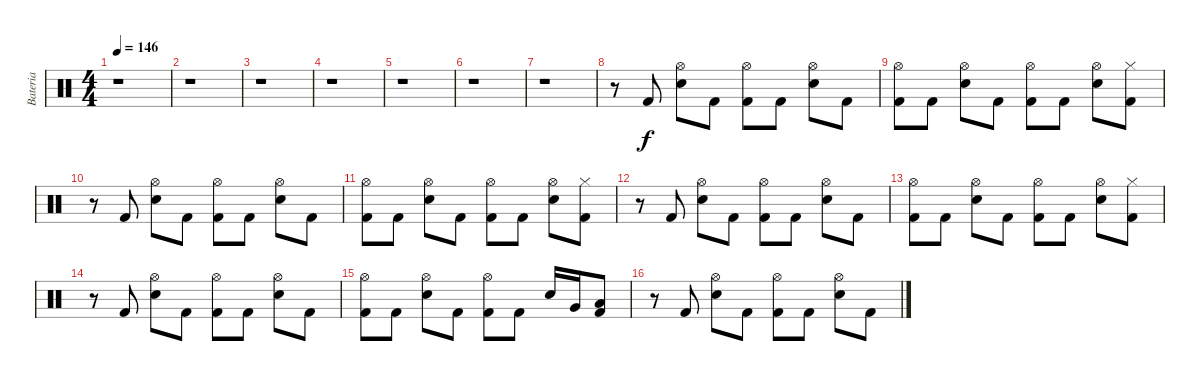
\track ("Bateria" "Bateria") {instrument percussion}
\staff {score}
\articulation defaults
\ts (4 4)
\tempo 146
\clef neutral
\ks c
r.1{dy f} |
r.1 |
r.1 |
r.1 |
r.1 |
r.1 |
r.1 |
r.8 "Kick (hit) 2".8 ("Hi-Hat (open)" "Electric Snare (hit)").8 "Kick (hit) 2".8 ("Hi-Hat (open)" "Kick (hit) 2").8 "Kick (hit) 2".8 ("Hi-Hat (open)" "Electric Snare (hit)").8 "Kick (hit) 2".8 |
("Hi-Hat (open)" "Kick (hit) 2").8 "Kick (hit) 2".8 ("Hi-Hat (open)" "Electric Snare (hit)").8 "Kick (hit) 2".8 ("Hi-Hat (open)" "Kick (hit) 2").8 "Kick (hit) 2".8 ("Hi-Hat (open)" "Electric Snare (hit)").8 ("Hi-Hat (closed)" "Kick (hit) 2").8 |
r.8 "Kick (hit) 2".8 ("Hi-Hat (open)" "Electric Snare (hit)").8 "Kick (hit) 2".8 ("Hi-Hat (open)" "Kick (hit) 2").8 "Kick (hit) 2".8 ("Hi-Hat (open)" "Electric Snare (hit)").8 "Kick (hit) 2".8 |
("Hi-Hat (open)" "Kick (hit) 2").8 "Kick (hit) 2".8 ("Hi-Hat (open)" "Electric Snare (hit)").8 "Kick (hit) 2".8 ("Hi-Hat (open)" "Kick (hit) 2").8 "Kick (hit) 2".8 ("Hi-Hat (open)" "Electric Snare (hit)").8 ("Hi-Hat (closed)" "Kick (hit) 2").8 |
r.8 "Kick (hit) 2".8 ("Hi-Hat (open)" "Electric Snare (hit)").8 "Kick (hit) 2".8 ("Hi-Hat (open)" "Kick (hit) 2").8 "Kick (hit) 2".8 ("Hi-Hat (open)" "Electric Snare (hit)").8 "Kick (hit) 2".8 |
("Hi-Hat (open)" "Kick (hit) 2").8 "Kick (hit) 2".8 ("Hi-Hat (open)" "Electric Snare (hit)").8 "Kick (hit) 2".8 ("Hi-Hat (open)" "Kick (hit) 2").8 "Kick (hit) 2".8 ("Hi-Hat (open)" "Electric Snare (hit)").8 ("Hi-Hat (closed)" "Kick (hit) 2").8 |
r.8 "Kick (hit) 2".8 ("Electric Snare (hit)" "Hi-Hat (open)").8 "Kick (hit) 2".8 ("Kick (hit) 2" "Hi-Hat (open)").8 "Kick (hit) 2".8 ("Electric Snare (hit)" "Hi-Hat (open)").8 "Kick (hit) 2".8 |
("Kick (hit) 2" "Hi-Hat (open)").8 "Kick (hit) 2".8 ("Electric Snare (hit)" "Hi-Hat (open)").8 "Kick (hit) 2".8 ("Kick (hit) 2" "Hi-Hat (open)").8 "Kick (hit) 2".8 "Electric Snare (hit)".16 "Very Low Tom (hit)".16 ("Low Tom (hit)" "Kick (hit) 2").8 |
r.8 "Kick (hit) 2".8 ("Hi-Hat (open)" "Electric Snare (hit)").8 "Kick (hit) 2".8 ("Hi-Hat (open)" "Kick (hit) 2").8 "Kick (hit) 2".8 ("Hi-Hat (open)" "Electric Snare (hit)").8 "Kick (hit) 2".8
